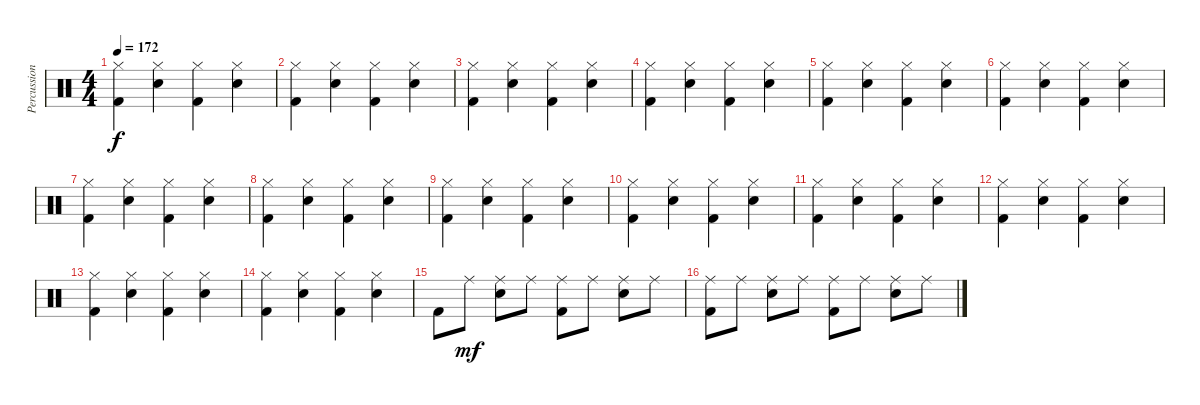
\track ("Percussion" "Percussion") {instrument percussion}
\staff {score}
\articulation defaults
\ts (4 4)
\tempo 172
\clef neutral
\ks c
("Hi-Hat (closed)" "Kick (hit) 2").4{dy f} ("Hi-Hat (closed)" "Snare (hit) 2").4 ("Hi-Hat (closed)" "Kick (hit) 2").4 ("Hi-Hat (closed)" "Snare (hit) 2").4 |
("Hi-Hat (closed)" "Kick (hit) 2").4 ("Hi-Hat (closed)" "Snare (hit) 2").4 ("Hi-Hat (closed)" "Kick (hit) 2").4 ("Hi-Hat (closed)" "Snare (hit) 2").4 |
("Hi-Hat (closed)" "Kick (hit) 2").4 ("Hi-Hat (closed)" "Snare (hit) 2").4 ("Hi-Hat (closed)" "Kick (hit) 2").4 ("Hi-Hat (closed)" "Snare (hit) 2").4 |
("Hi-Hat (closed)" "Kick (hit) 2").4 ("Hi-Hat (closed)" "Snare (hit) 2").4 ("Hi-Hat (closed)" "Kick (hit) 2").4 ("Hi-Hat (closed)" "Snare (hit) 2").4 |
("Hi-Hat (closed)" "Kick (hit) 2").4 ("Hi-Hat (closed)" "Snare (hit) 2").4 ("Hi-Hat (closed)" "Kick (hit) 2").4 ("Hi-Hat (closed)" "Snare (hit) 2").4 |
("Hi-Hat (closed)" "Kick (hit) 2").4 ("Hi-Hat (closed)" "Snare (hit) 2").4 ("Hi-Hat (closed)" "Kick (hit) 2").4 ("Hi-Hat (closed)" "Snare (hit) 2").4 |
("Hi-Hat (closed)" "Kick (hit) 2").4 ("Hi-Hat (closed)" "Snare (hit) 2").4 ("Hi-Hat (closed)" "Kick (hit) 2").4 ("Hi-Hat (closed)" "Snare (hit) 2").4 |
("Hi-Hat (closed)" "Kick (hit) 2").4 ("Hi-Hat (closed)" "Snare (hit) 2").4 ("Hi-Hat (closed)" "Kick (hit) 2").4 ("Hi-Hat (closed)" "Snare (hit) 2").4 |
("Hi-Hat (closed)" "Kick (hit) 2").4 ("Hi-Hat (closed)" "Snare (hit) 2").4 ("Hi-Hat (closed)" "Kick (hit) 2").4 ("Hi-Hat (closed)" "Snare (hit) 2").4 |
("Hi-Hat (closed)" "Kick (hit) 2").4 ("Hi-Hat (closed)" "Snare (hit) 2").4 ("Hi-Hat (closed)" "Kick (hit) 2").4 ("Hi-Hat (closed)" "Snare (hit) 2").4 |
("Hi-Hat (closed)" "Kick (hit) 2").4 ("Hi-Hat (closed)" "Snare (hit) 2").4 ("Hi-Hat (closed)" "Kick (hit) 2").4 ("Hi-Hat (closed)" "Snare (hit) 2").4 |
("Hi-Hat (closed)" "Kick (hit) 2").4 ("Hi-Hat (closed)" "Snare (hit) 2").4 ("Hi-Hat (closed)" "Kick (hit) 2").4 ("Hi-Hat (closed)" "Snare (hit) 2").4 |
("Hi-Hat (closed)" "Kick (hit) 2").4 ("Hi-Hat (closed)" "Snare (hit) 2").4 ("Hi-Hat (closed)" "Kick (hit) 2").4 ("Hi-Hat (closed)" "Snare (hit) 2").4 |
("Hi-Hat (closed)" "Kick (hit) 2").4 ("Hi-Hat (closed)" "Snare (hit) 2").4 ("Hi-Hat (closed)" "Kick (hit) 2").4 ("Hi-Hat (closed)" "Snare (hit) 2").4 |
"Kick (hit) 2".8 "Ride (middle)".8{dy mf} ("Ride (middle)" "Snare (hit) 2").8 "Ride (middle)".8 ("Ride (middle)" "Kick (hit) 2").8 "Ride (middle)".8 ("Ride (middle)" "Snare (hit) 2").8 "Ride (middle)".8 |
("Ride (middle)" "Kick (hit) 2").8 "Ride (middle)".8 ("Ride (middle)" "Snare (hit) 2").8 "Ride (middle)".8 ("Ride (middle)" "Kick (hit) 2").8 "Ride (middle)".8 ("Ride (middle)" "Snare (hit) 2").8 "Ride (middle)".8
